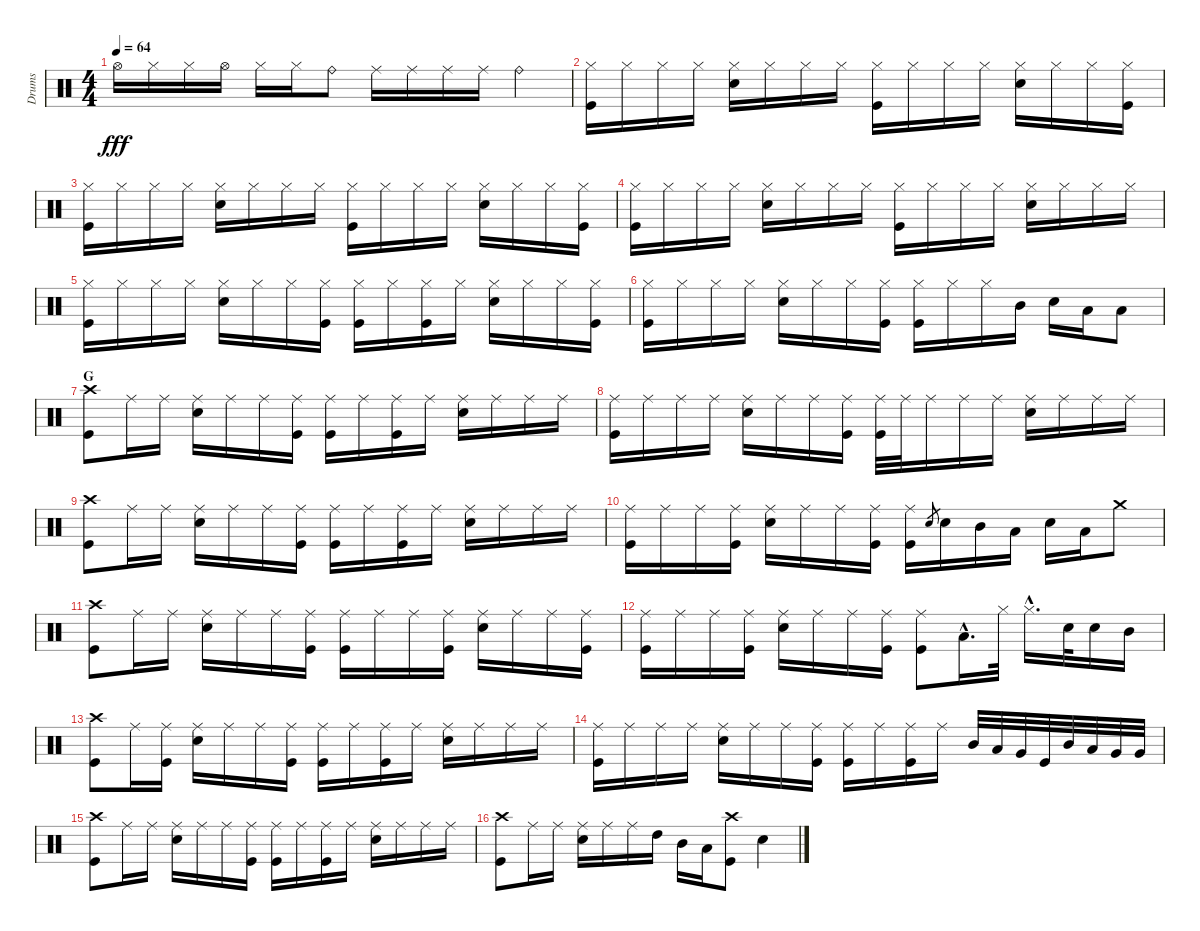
\track ("Drums" "Drums") {instrument percussion}
\staff {score}
\articulation defaults
\ts (4 4)
\tempo 64
\clef neutral
\ks c "Hi-Hat (open)".16{dy fff} "Hi-Hat (closed)".16 "Hi-Hat (closed)".16 "Hi-Hat (open)".16 "Hi-Hat (closed)".16 "Hi-Hat (closed)".16 "Ride (bell)".8 "Ride (middle)".16 "Ride (middle)".16 "Ride (middle)".16 "Ride (middle)".16 "Ride (bell)".4
|
("Hi-Hat (closed)" "Kick (hit)").16 "Hi-Hat (closed)".16 "Hi-Hat (closed)".16 "Hi-Hat (closed)".16 ("Hi-Hat (closed)" "Electric Snare (hit)").16 "Hi-Hat (closed)".16 "Hi-Hat (closed)".16 "Hi-Hat (closed)".16 ("Hi-Hat (closed)" "Kick (hit)").16 "Hi-Hat (closed)".16 "Hi-Hat (closed)".16 "Hi-Hat (closed)".16 ("Hi-Hat (closed)" "Electric Snare (hit)").16 "Hi-Hat (closed)".16 "Hi-Hat (closed)".16 ("Hi-Hat (closed)" "Kick (hit)").16 |
("Hi-Hat (closed)" "Kick (hit)").16 "Hi-Hat (closed)".16 "Hi-Hat (closed)".16 "Hi-Hat (closed)".16 ("Hi-Hat (closed)" "Electric Snare (hit)").16 "Hi-Hat (closed)".16 "Hi-Hat (closed)".16 "Hi-Hat (closed)".16 ("Hi-Hat (closed)" "Kick (hit)").16 "Hi-Hat (closed)".16 "Hi-Hat (closed)".16 "Hi-Hat (closed)".16 ("Hi-Hat (closed)" "Electric Snare (hit)").16 "Hi-Hat (closed)".16 "Hi-Hat (closed)".16 ("Hi-Hat (closed)" "Kick (hit)").16 |
("Hi-Hat (closed)" "Kick (hit)").16 "Hi-Hat (closed)".16 "Hi-Hat (closed)".16 "Hi-Hat (closed)".16 ("Hi-Hat (closed)" "Electric Snare (hit)").16 "Hi-Hat (closed)".16 "Hi-Hat (closed)".16 "Hi-Hat (closed)".16 ("Hi-Hat (closed)" "Kick (hit)").16 "Hi-Hat (closed)".16 "Hi-Hat (closed)".16 "Hi-Hat (closed)".16 ("Hi-Hat (closed)" "Electric Snare (hit)").16 "Hi-Hat (closed)".16 "Hi-Hat (closed)".16 "Hi-Hat (closed)".16 |
("Hi-Hat (closed)" "Kick (hit)").16 "Hi-Hat (closed)".16 "Hi-Hat (closed)".16 "Hi-Hat (closed)".16 ("Hi-Hat (closed)" "Electric Snare (hit)").16 "Hi-Hat (closed)".16 "Hi-Hat (closed)".16 ("Hi-Hat (closed)" "Kick (hit)").16 ("Hi-Hat (closed)" "Kick (hit)").16 "Hi-Hat (closed)".16 ("Hi-Hat (closed)" "Kick (hit)").16 "Hi-Hat (closed)".16 ("Hi-Hat (closed)" "Electric Snare (hit)").16 "Hi-Hat (closed)".16 "Hi-Hat (closed)".16 ("Hi-Hat (closed)" "Kick (hit)").16 |
("Hi-Hat (closed)" "Kick (hit)").16 "Hi-Hat (closed)".16 "Hi-Hat (closed)".16 "Hi-Hat (closed)".16 ("Hi-Hat (closed)" "Electric Snare (hit)").16 "Hi-Hat (closed)".16 "Hi-Hat (closed)".16 ("Hi-Hat (closed)" "Kick (hit)").16 ("Hi-Hat (closed)" "Kick (hit)").16 "Hi-Hat (closed)".16 "Hi-Hat (closed)".16 "Mid Tom (hit)".16 "Snare (hit) 2".16 "Low Tom (hit)".16 "Low Tom (hit)".8 |
\section ("" "G")
("Crash high (hit)" "Kick (hit)").8 "Ride (middle)".16 "Ride (middle)".16 ("Ride (middle)" "Snare (hit) 2").16 "Ride (middle)".16 "Ride (middle)".16 ("Ride (middle)" "Kick (hit)").16 ("Ride (middle)" "Kick (hit)").16 "Ride (middle)".16 ("Ride (middle)" "Kick (hit)").16 "Ride (middle)".16 ("Ride (middle)" "Snare (hit) 2").16 "Ride (middle)".16 "Ride (middle)".16 "Ride (middle)".16 |
("Ride (middle)" "Kick (hit)").16 "Ride (middle)".16 "Ride (middle)".16 "Ride (middle)".16 ("Ride (middle)" "Snare (hit) 2").16 "Ride (middle)".16 "Ride (middle)".16 ("Ride (middle)" "Kick (hit)").16 ("Ride (middle)" "Kick (hit)").32 "Ride (middle)".32 "Ride (middle)".16 "Ride (middle)".16 "Ride (middle)".16 ("Ride (middle)" "Snare (hit) 2").16 "Ride (middle)".16 "Ride (middle)".16 "Ride (middle)".16 |
("Crash high (hit)" "Kick (hit)").8 "Ride (middle)".16 "Ride (middle)".16 ("Ride (middle)" "Snare (hit) 2").16 "Ride (middle)".16 "Ride (middle)".16 ("Ride (middle)" "Kick (hit)").16 ("Ride (middle)" "Kick (hit)").16 "Ride (middle)".16 ("Ride (middle)" "Kick (hit)").16 "Ride (middle)".16 ("Ride (middle)" "Snare (hit) 2").16 "Ride (middle)".16 "Ride (middle)".16 "Ride (middle)".16 |
("Ride (middle)" "Kick (hit)").16 "Ride (middle)".16 "Ride (middle)".16 ("Ride (middle)" "Kick (hit)").16 ("Ride (middle)" "Snare (hit) 2").16 "Ride (middle)".16 "Ride (middle)".16 ("Ride (middle)" "Kick (hit)").16 ("Ride (middle)" "Kick (hit)").16 "Snare (hit) 2".8{gr} "Snare (hit) 2".16 "Mid Tom (hit)".16 "Low Tom (hit)".16 "Snare (hit) 2".16 "Low Tom (hit)".16 "Crash medium (hit)".8 |
("Crash high (hit)" "Kick (hit)").8 "Ride (middle)".16 "Ride (middle)".16 ("Ride (middle)" "Snare (hit) 2").16 "Ride (middle)".16 "Ride (middle)".16 ("Ride (middle)" "Kick (hit)").16 ("Ride (middle)" "Kick (hit)").16 "Ride (middle)".16 "Ride (middle)".16 ("Ride (middle)" "Kick (hit)").16 ("Ride (middle)" "Snare (hit) 2").16 "Ride (middle)".16 "Ride (middle)".16 ("Ride (middle)" "Kick (hit)").16 |
("Ride (middle)" "Kick (hit)").16 "Ride (middle)".16 "Ride (middle)".16 ("Ride (middle)" "Kick (hit)").16 ("Ride (middle)" "Snare (hit) 2").16 "Ride (middle)".16 "Ride (middle)".16 ("Ride (middle)" "Kick (hit)").16 ("Ride (middle)" "Kick (hit)").8 "Low Tom (hit)"{hac}.16{d} "Hi-Hat (closed)".32 "Hi-Hat (closed)"{hac}.16{d} "Snare (hit) 2".32 "Snare (hit) 2".16 "Mid Tom (hit)".16 |
("Crash high (hit)" "Kick (hit)").8 "Ride (middle)".16 ("Ride (middle)" "Kick (hit)").16 ("Ride (middle)" "Snare (hit) 2").16 "Ride (middle)".16 "Ride (middle)".16 ("Ride (middle)" "Kick (hit)").16 ("Ride (middle)" "Kick (hit)").16 "Ride (middle)".16 ("Ride (middle)" "Kick (hit)").16 "Ride (middle)".16 ("Ride (middle)" "Snare (hit) 2").16 "Ride (middle)".16 "Ride (middle)".16 "Ride (middle)".16 |
("Ride (middle)" "Kick (hit)").16 "Ride (middle)".16 "Ride (middle)".16 "Ride (middle)".16 ("Ride (middle)" "Snare (hit) 2").16 "Ride (middle)".16 "Ride (middle)".16 ("Ride (middle)" "Kick (hit)").16 ("Ride (middle)" "Kick (hit)").16 "Ride (middle)".16 ("Ride (middle)" "Kick (hit)").16 "Ride (middle)".16 "Mid Tom (hit)".32 "Low Tom (hit)".32 "Very Low Tom (hit)".32 "Kick (hit)".32 "Mid Tom (hit)".32 "Low Tom (hit)".32 "Very Low Tom (hit)".32 "Very Low Tom (hit)".32 |
("Crash high (hit)" "Kick (hit)").8 "Ride (middle)".16 "Ride (middle)".16 ("Ride (middle)" "Snare (hit) 2").16 "Ride (middle)".16 "Ride (middle)".16 ("Ride (middle)" "Kick (hit)").16 ("Ride (middle)" "Kick (hit)").16 "Ride (middle)".16 ("Ride (middle)" "Kick (hit)").16 "Ride (middle)".16 ("Ride (middle)" "Snare (hit) 2").16 "Ride (middle)".16 "Ride (middle)".16 "Ride (middle)".16 |
("Crash high (hit)" "Kick (hit)").8 "Ride (middle)".16 "Ride (middle)".16 ("Ride (middle)" "Snare (hit) 2").16 "Ride (middle)".16 "Ride (middle)".16 "High Tom (hit)".16 "Mid Tom (hit)".16 "Low Tom (hit)".16 ("Crash high (hit)" "Kick (hit)").8 "Snare (hit) 2".4
